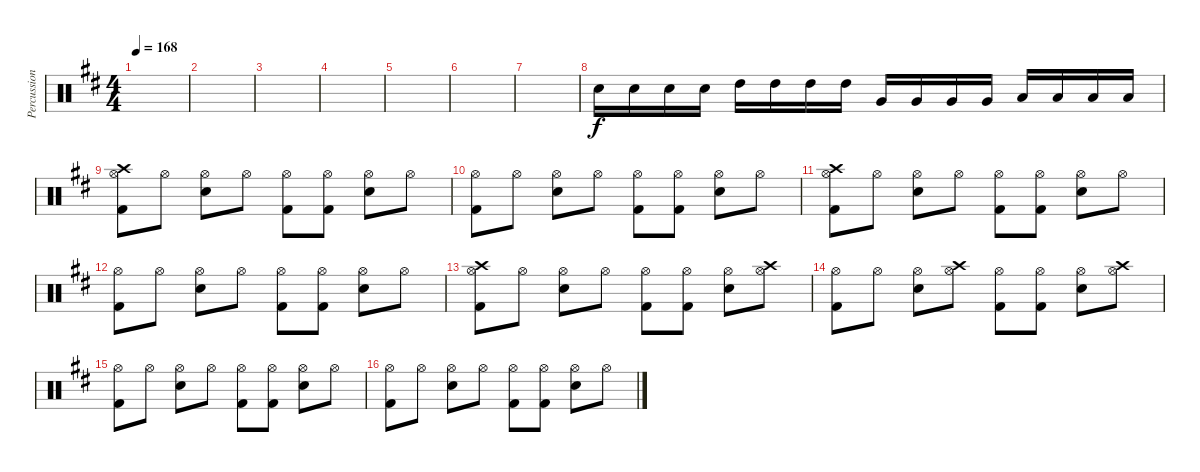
\track ("Percussion" "Percussion") {instrument percussion}
\staff {score}
\articulation defaults
\ts (4 4)
\tempo 168
\clef neutral
\ks d
|
|
|
|
|
|
|
"Electric Snare (hit)".16 "Electric Snare (hit)".16 "Electric Snare (hit)".16 "Electric Snare (hit)".16 "High Tom (hit)".16 "High Tom (hit)".16 "High Tom (hit)".16 "High Tom (hit)".16 "Very Low Tom (hit)".16 "Very Low Tom (hit)".16 "Very Low Tom (hit)".16 "Very Low Tom (hit)".16 "Low Tom (hit)".16 "Low Tom (hit)".16 "Low Tom (hit)".16 "Low Tom (hit)".16 |
("Crash high (hit)" "Kick (hit) 2" "Hi-Hat (open)").8 "Hi-Hat (open)".8 ("Electric Snare (hit)" "Hi-Hat (open)").8 "Hi-Hat (open)".8 ("Kick (hit) 2" "Hi-Hat (open)").8 ("Kick (hit) 2" "Hi-Hat (open)").8 ("Electric Snare (hit)" "Hi-Hat (open)").8 "Hi-Hat (open)".8 |
("Kick (hit) 2" "Hi-Hat (open)").8 "Hi-Hat (open)".8 ("Electric Snare (hit)" "Hi-Hat (open)").8 "Hi-Hat (open)".8 ("Kick (hit) 2" "Hi-Hat (open)").8 ("Kick (hit) 2" "Hi-Hat (open)").8 ("Electric Snare (hit)" "Hi-Hat (open)").8 "Hi-Hat (open)".8 |
("Crash high (hit)" "Kick (hit) 2" "Hi-Hat (open)").8 "Hi-Hat (open)".8 ("Electric Snare (hit)" "Hi-Hat (open)").8 "Hi-Hat (open)".8 ("Kick (hit) 2" "Hi-Hat (open)").8 ("Kick (hit) 2" "Hi-Hat (open)").8 ("Electric Snare (hit)" "Hi-Hat (open)").8 "Hi-Hat (open)".8 |
("Kick (hit) 2" "Hi-Hat (open)").8 "Hi-Hat (open)".8 ("Electric Snare (hit)" "Hi-Hat (open)").8 "Hi-Hat (open)".8 ("Kick (hit) 2" "Hi-Hat (open)").8 ("Kick (hit) 2" "Hi-Hat (open)").8 ("Electric Snare (hit)" "Hi-Hat (open)").8 "Hi-Hat (open)".8 |
("Crash high (hit)" "Kick (hit) 2" "Hi-Hat (open)").8 "Hi-Hat (open)".8 ("Electric Snare (hit)" "Hi-Hat (open)").8 "Hi-Hat (open)".8 ("Kick (hit) 2" "Hi-Hat (open)").8 ("Kick (hit) 2" "Hi-Hat (open)").8 ("Electric Snare (hit)" "Hi-Hat (open)").8 ("Crash high (hit)" "Hi-Hat (open)").8 |
("Kick (hit) 2" "Hi-Hat (open)").8 "Hi-Hat (open)".8 ("Electric Snare (hit)" "Hi-Hat (open)").8 ("Crash high (hit)" "Hi-Hat (open)").8 ("Kick (hit) 2" "Hi-Hat (open)").8 ("Kick (hit) 2" "Hi-Hat (open)").8 ("Electric Snare (hit)" "Hi-Hat (open)").8 ("Crash high (hit)" "Hi-Hat (open)").8 |
("Kick (hit) 2" "Hi-Hat (open)").8 "Hi-Hat (open)".8 ("Electric Snare (hit)" "Hi-Hat (open)").8 "Hi-Hat (open)".8 ("Kick (hit) 2" "Hi-Hat (open)").8 ("Kick (hit) 2" "Hi-Hat (open)").8 ("Electric Snare (hit)" "Hi-Hat (open)").8 "Hi-Hat (open)".8 |
("Kick (hit) 2" "Hi-Hat (open)").8 "Hi-Hat (open)".8 ("Electric Snare (hit)" "Hi-Hat (open)").8 "Hi-Hat (open)".8 ("Kick (hit) 2" "Hi-Hat (open)").8 ("Kick (hit) 2" "Hi-Hat (open)").8 ("Electric Snare (hit)" "Hi-Hat (open)").8 "Hi-Hat (open)".8
